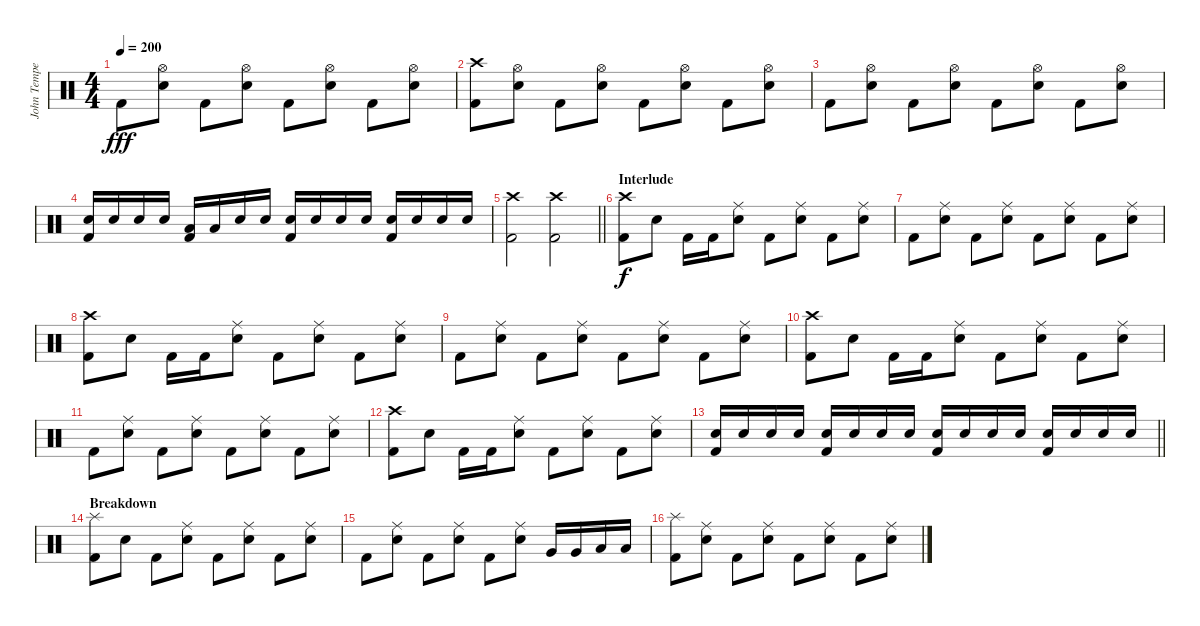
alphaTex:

\track ("John Tempesta" "John Tempe") {instrument percussion}
\staff {score}
\articulation defaults
\ts (4 4)
\tempo 200
\clef neutral
\ks c "Kick (hit) 2".8{dy fff}
("Electric Snare (hit)" "Hi-Hat (open)").8 "Kick (hit) 2".8 ("Electric Snare (hit)" "Hi-Hat (open)").8 "Kick (hit) 2".8 ("Electric Snare (hit)" "Hi-Hat (open)").8 "Kick (hit) 2".8 ("Electric Snare (hit)" "Hi-Hat (open)").8 |
("Crash high (hit)" "Kick (hit) 2").8 ("Electric Snare (hit)" "Hi-Hat (open)").8 "Kick (hit) 2".8 ("Electric Snare (hit)" "Hi-Hat (open)").8 "Kick (hit) 2".8 ("Electric Snare (hit)" "Hi-Hat (open)").8 "Kick (hit) 2".8 ("Electric Snare (hit)" "Hi-Hat (open)").8 |
"Kick (hit) 2".8 ("Electric Snare (hit)" "Hi-Hat (open)").8 "Kick (hit) 2".8 ("Electric Snare (hit)" "Hi-Hat (open)").8 "Kick (hit) 2".8 ("Electric Snare (hit)" "Hi-Hat (open)").8 "Kick (hit) 2".8 ("Electric Snare (hit)" "Hi-Hat (open)").8 |
("Electric Snare (hit)" "Kick (hit) 2").16 "Electric Snare (hit)".16 "Electric Snare (hit)".16 "Electric Snare (hit)".16 ("Low Floor Tom (hit)" "Kick (hit) 2").16 "Low Floor Tom (hit)".16 "Electric Snare (hit)".16 "Electric Snare (hit)".16 ("Electric Snare (hit)" "Kick (hit) 2").16 "Electric Snare (hit)".16 "Electric Snare (hit)".16 "Electric Snare (hit)".16 ("Electric Snare (hit)" "Kick (hit) 2").16 "Electric Snare (hit)".16 "Electric Snare (hit)".16 "Electric Snare (hit)".16 |
\barLineRight lightlight
("Crash high (hit)" "Kick (hit) 2").2 ("Crash high (hit)" "Kick (hit) 2").2 |
\section ("" "Interlude")
("Crash high (hit)" "Kick (hit) 2").8{dy f} "Electric Snare (hit)".8 "Kick (hit) 2".16 "Kick (hit) 2".16 ("Electric Snare (hit)" "Ride (middle)").8 "Kick (hit) 2".8 ("Electric Snare (hit)" "Ride (middle)").8 "Kick (hit) 2".8 ("Electric Snare (hit)" "Ride (middle)").8 |
"Kick (hit) 2".8 ("Electric Snare (hit)" "Ride (middle)").8 "Kick (hit) 2".8 ("Electric Snare (hit)" "Ride (middle)").8 "Kick (hit) 2".8 ("Electric Snare (hit)" "Ride (middle)").8 "Kick (hit) 2".8 ("Electric Snare (hit)" "Ride (middle)").8 |
("Crash high (hit)" "Kick (hit) 2").8 "Electric Snare (hit)".8 "Kick (hit) 2".16 "Kick (hit) 2".16 ("Electric Snare (hit)" "Ride (middle)").8 "Kick (hit) 2".8 ("Electric Snare (hit)" "Ride (middle)").8 "Kick (hit) 2".8 ("Electric Snare (hit)" "Ride (middle)").8 |
"Kick (hit) 2".8 ("Electric Snare (hit)" "Ride (middle)").8 "Kick (hit) 2".8 ("Electric Snare (hit)" "Ride (middle)").8 "Kick (hit) 2".8 ("Electric Snare (hit)" "Ride (middle)").8 "Kick (hit) 2".8 ("Electric Snare (hit)" "Ride (middle)").8 |
("Crash high (hit)" "Kick (hit) 2").8 "Electric Snare (hit)".8 "Kick (hit) 2".16 "Kick (hit) 2".16 ("Electric Snare (hit)" "Ride (middle)").8 "Kick (hit) 2".8 ("Electric Snare (hit)" "Ride (middle)").8 "Kick (hit) 2".8 ("Electric Snare (hit)" "Ride (middle)").8 |
"Kick (hit) 2".8 ("Electric Snare (hit)" "Ride (middle)").8 "Kick (hit) 2".8 ("Electric Snare (hit)" "Ride (middle)").8 "Kick (hit) 2".8 ("Electric Snare (hit)" "Ride (middle)").8 "Kick (hit) 2".8 ("Electric Snare (hit)" "Ride (middle)").8 |
("Crash high (hit)" "Kick (hit) 2").8 "Electric Snare (hit)".8 "Kick (hit) 2".16 "Kick (hit) 2".16 ("Electric Snare (hit)" "Ride (middle)").8 "Kick (hit) 2".8 ("Electric Snare (hit)" "Ride (middle)").8 "Kick (hit) 2".8 ("Electric Snare (hit)" "Ride (middle)").8 |
\barLineRight lightlight
("Electric Snare (hit)" "Kick (hit) 2").16 "Electric Snare (hit)".16 "Electric Snare (hit)".16 "Electric Snare (hit)".16 ("Electric Snare (hit)" "Kick (hit) 2").16 "Electric Snare (hit)".16 "Electric Snare (hit)".16 "Electric Snare (hit)".16 ("Electric Snare (hit)" "Kick (hit) 2").16 "Electric Snare (hit)".16 "Electric Snare (hit)".16 "Electric Snare (hit)".16 ("Electric Snare (hit)" "Kick (hit) 2").16 "Electric Snare (hit)".16 "Electric Snare (hit)".16 "Electric Snare (hit)".16 |
\section ("" "Breakdown")
("Splash (hit)" "Kick (hit) 2").8 "Electric Snare (hit)".8 "Kick (hit) 2".8 ("Electric Snare (hit)" "Ride (middle)").8 "Kick (hit) 2".8 ("Electric Snare (hit)" "Ride (middle)").8 "Kick (hit) 2".8 ("Electric Snare (hit)" "Ride (middle)").8 |
"Kick (hit) 2".8 ("Electric Snare (hit)" "Ride (middle)").8 "Kick (hit) 2".8 ("Electric Snare (hit)" "Ride (middle)").8 "Kick (hit) 2".8 ("Electric Snare (hit)" "Ride (middle)").8 "Very Low Tom (hit)".16 "Very Low Tom (hit)".16 "Low Floor Tom (hit)".16 "Low Floor Tom (hit)".16 |
("Splash (hit)" "Kick (hit) 2").8 ("Electric Snare (hit)" "Ride (middle)").8 "Kick (hit) 2".8 ("Electric Snare (hit)" "Ride (middle)").8 "Kick (hit) 2".8 ("Electric Snare (hit)" "Ride (middle)").8 "Kick (hit) 2".8 ("Electric Snare (hit)" "Ride (middle)").8
